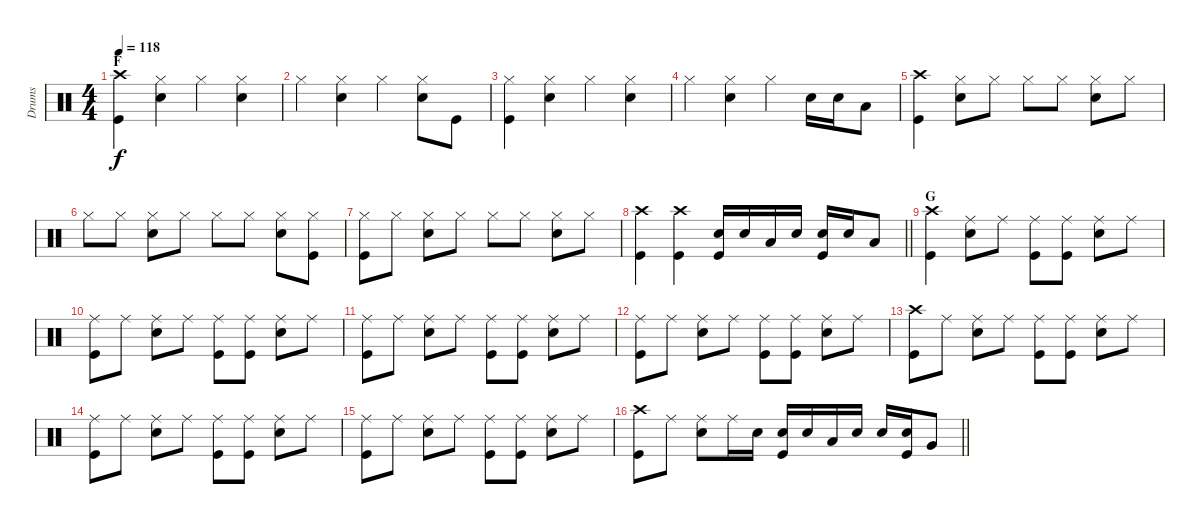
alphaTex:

\track ("Drums" "Drums") {instrument percussion}
\staff {score}
\articulation defaults
\ts (4 4)
\section ("" "F")
\tempo 118
\clef neutral
\ks c
("Crash high (hit)" "Kick (hit)").4{dy f} ("Hi-Hat (closed)" "Electric Snare (hit)").4 "Hi-Hat (closed)".4 ("Hi-Hat (closed)" "Electric Snare (hit)").4 |
"Hi-Hat (closed)".4 ("Hi-Hat (closed)" "Electric Snare (hit)").4 "Hi-Hat (closed)".4 ("Hi-Hat (closed)" "Electric Snare (hit)").8 "Kick (hit)".8 |
("Hi-Hat (closed)" "Kick (hit)").4 ("Hi-Hat (closed)" "Electric Snare (hit)").4 "Hi-Hat (closed)".4 ("Hi-Hat (closed)" "Electric Snare (hit)").4 |
"Hi-Hat (closed)".4 ("Hi-Hat (closed)" "Electric Snare (hit)").4 "Hi-Hat (closed)".4 "Electric Snare (hit)".16 "Electric Snare (hit)".16 "Low Tom (hit)".8 |
("Crash high (hit)" "Kick (hit)").4 ("Hi-Hat (closed)" "Electric Snare (hit)").8 "Hi-Hat (closed)".8 "Hi-Hat (closed)".8 "Hi-Hat (closed)".8 ("Hi-Hat (closed)" "Electric Snare (hit)").8 "Hi-Hat (closed)".8 |
"Hi-Hat (closed)".8 "Hi-Hat (closed)".8 ("Hi-Hat (closed)" "Electric Snare (hit)").8 "Hi-Hat (closed)".8 "Hi-Hat (closed)".8 "Hi-Hat (closed)".8 ("Hi-Hat (closed)" "Electric Snare (hit)").8 ("Hi-Hat (closed)" "Kick (hit)").8 |
("Hi-Hat (closed)" "Kick (hit)").8 "Hi-Hat (closed)".8 ("Hi-Hat (closed)" "Electric Snare (hit)").8 "Hi-Hat (closed)".8 "Hi-Hat (closed)".8 "Hi-Hat (closed)".8 ("Hi-Hat (closed)" "Electric Snare (hit)").8 "Hi-Hat (closed)".8 |
\barLineRight lightlight
("Crash high (hit)" "Kick (hit)").4 ("Crash high (hit)" "Kick (hit)").4 ("Electric Snare (hit)" "Kick (hit)").16 "Electric Snare (hit)".16 "Low Tom (hit)".16 "Electric Snare (hit)".16 ("Electric Snare (hit)" "Kick (hit)").16 "Electric Snare (hit)".16 "Low Tom (hit)".8 |
\section ("" "G")
("Crash high (hit)" "Kick (hit)").4 ("Ride (middle)" "Electric Snare (hit)").8 "Ride (middle)".8 ("Ride (middle)" "Kick (hit)").8 ("Ride (middle)" "Kick (hit)").8 ("Ride (middle)" "Electric Snare (hit)").8 "Ride (middle)".8 |
("Ride (middle)" "Kick (hit)").8 "Ride (middle)".8 ("Ride (middle)" "Electric Snare (hit)").8 "Ride (middle)".8 ("Ride (middle)" "Kick (hit)").8 ("Ride (middle)" "Kick (hit)").8 ("Ride (middle)" "Electric Snare (hit)").8 "Ride (middle)".8 |
("Ride (middle)" "Kick (hit)").8 "Ride (middle)".8 ("Ride (middle)" "Electric Snare (hit)").8 "Ride (middle)".8 ("Ride (middle)" "Kick (hit)").8 ("Ride (middle)" "Kick (hit)").8 ("Ride (middle)" "Electric Snare (hit)").8 "Ride (middle)".8 |
("Ride (middle)" "Kick (hit)").8 "Ride (middle)".8 ("Ride (middle)" "Electric Snare (hit)").8 "Ride (middle)".8 ("Ride (middle)" "Kick (hit)").8 ("Ride (middle)" "Kick (hit)").8 ("Ride (middle)" "Electric Snare (hit)").8 "Ride (middle)".8 |
("Crash high (hit)" "Kick (hit)").8 "Ride (middle)".8 ("Ride (middle)" "Electric Snare (hit)").8 "Ride (middle)".8 ("Ride (middle)" "Kick (hit)").8 ("Ride (middle)" "Kick (hit)").8 ("Ride (middle)" "Electric Snare (hit)").8 "Ride (middle)".8 |
("Ride (middle)" "Kick (hit)").8 "Ride (middle)".8 ("Ride (middle)" "Electric Snare (hit)").8 "Ride (middle)".8 ("Ride (middle)" "Kick (hit)").8 ("Ride (middle)" "Kick (hit)").8 ("Ride (middle)" "Electric Snare (hit)").8 "Ride (middle)".8 |
("Ride (middle)" "Kick (hit)").8 "Ride (middle)".8 ("Ride (middle)" "Electric Snare (hit)").8 "Ride (middle)".8 ("Ride (middle)" "Kick (hit)").8 ("Ride (middle)" "Kick (hit)").8 ("Ride (middle)" "Electric Snare (hit)").8 "Ride (middle)".8 |
\barLineRight lightlight
("Crash high (hit)" "Kick (hit)").8 "Ride (middle)".8 ("Ride (middle)" "Electric Snare (hit)").8 "Ride (middle)".16 "Electric Snare (hit)".16 ("Electric Snare (hit)" "Kick (hit)").16 "Electric Snare (hit)".16 "Low Tom (hit)".16 "Electric Snare (hit)".16 "Electric Snare (hit)".16 ("Electric Snare (hit)" "Kick (hit)").16 "Very Low Tom (hit)".8
